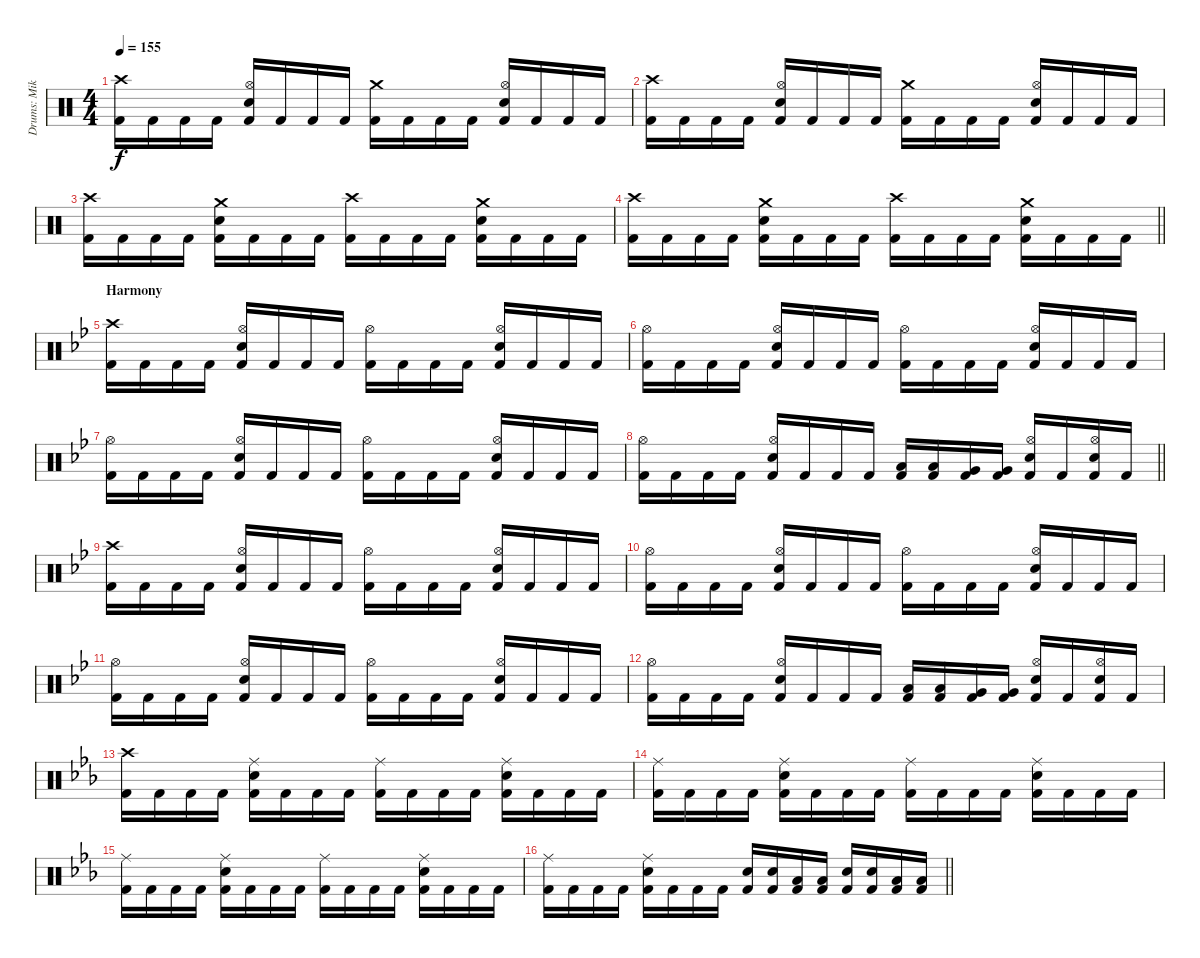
\track ("Drums: Mikko Korsbäck" "Drums: Mik") {instrument percussion}
\staff {score}
\articulation defaults
\ts (4 4)
\tempo 155
\clef neutral
\ks aminor
("Crash high (hit)" "Kick (hit) 2").16{dy f} "Kick (hit) 2".16 "Kick (hit) 2".16 "Kick (hit) 2".16 ("Hi-Hat (open)" "Electric Snare (hit)" "Kick (hit) 2").16 "Kick (hit) 2".16 "Kick (hit) 2".16 "Kick (hit) 2".16 ("Crash medium (hit)" "Kick (hit) 2").16 "Kick (hit) 2".16 "Kick (hit) 2".16 "Kick (hit) 2".16 ("Hi-Hat (open)" "Electric Snare (hit)" "Kick (hit) 2").16 "Kick (hit) 2".16 "Kick (hit) 2".16 "Kick (hit) 2".16 |
("Crash high (hit)" "Kick (hit) 2").16 "Kick (hit) 2".16 "Kick (hit) 2".16 "Kick (hit) 2".16 ("Hi-Hat (open)" "Electric Snare (hit)" "Kick (hit) 2").16 "Kick (hit) 2".16 "Kick (hit) 2".16 "Kick (hit) 2".16 ("Crash medium (hit)" "Kick (hit) 2").16 "Kick (hit) 2".16 "Kick (hit) 2".16 "Kick (hit) 2".16 ("Hi-Hat (open)" "Electric Snare (hit)" "Kick (hit) 2").16 "Kick (hit) 2".16 "Kick (hit) 2".16 "Kick (hit) 2".16 |
("Crash high (hit)" "Kick (hit) 2").16 "Kick (hit) 2".16 "Kick (hit) 2".16 "Kick (hit) 2".16 ("Crash medium (hit)" "Electric Snare (hit)" "Kick (hit) 2").16 "Kick (hit) 2".16 "Kick (hit) 2".16 "Kick (hit) 2".16 ("Crash high (hit)" "Kick (hit) 2").16 "Kick (hit) 2".16 "Kick (hit) 2".16 "Kick (hit) 2".16 ("Crash medium (hit)" "Electric Snare (hit)" "Kick (hit) 2").16 "Kick (hit) 2".16 "Kick (hit) 2".16 "Kick (hit) 2".16 |
\barLineRight lightlight
("Crash high (hit)" "Kick (hit) 2").16 "Kick (hit) 2".16 "Kick (hit) 2".16 "Kick (hit) 2".16 ("Crash medium (hit)" "Electric Snare (hit)" "Kick (hit) 2").16 "Kick (hit) 2".16 "Kick (hit) 2".16 "Kick (hit) 2".16 ("Crash high (hit)" "Kick (hit) 2").16 "Kick (hit) 2".16 "Kick (hit) 2".16 "Kick (hit) 2".16 ("Crash medium (hit)" "Electric Snare (hit)" "Kick (hit) 2").16 "Kick (hit) 2".16 "Kick (hit) 2".16 "Kick (hit) 2".16 |
\section ("" "Harmony")
\ks gminor
("Crash high (hit)" "Kick (hit) 2").16 "Kick (hit) 2".16 "Kick (hit) 2".16 "Kick (hit) 2".16 ("Hi-Hat (open)" "Electric Snare (hit)" "Kick (hit) 2").16 "Kick (hit) 2".16 "Kick (hit) 2".16 "Kick (hit) 2".16 ("Hi-Hat (open)" "Kick (hit) 2").16 "Kick (hit) 2".16 "Kick (hit) 2".16 "Kick (hit) 2".16 ("Hi-Hat (open)" "Electric Snare (hit)" "Kick (hit) 2").16 "Kick (hit) 2".16 "Kick (hit) 2".16 "Kick (hit) 2".16 |
("Hi-Hat (open)" "Kick (hit) 2").16 "Kick (hit) 2".16 "Kick (hit) 2".16 "Kick (hit) 2".16 ("Hi-Hat (open)" "Electric Snare (hit)" "Kick (hit) 2").16 "Kick (hit) 2".16 "Kick (hit) 2".16 "Kick (hit) 2".16 ("Hi-Hat (open)" "Kick (hit) 2").16 "Kick (hit) 2".16 "Kick (hit) 2".16 "Kick (hit) 2".16 ("Hi-Hat (open)" "Electric Snare (hit)" "Kick (hit) 2").16 "Kick (hit) 2".16 "Kick (hit) 2".16 "Kick (hit) 2".16 |
("Hi-Hat (open)" "Kick (hit) 2").16 "Kick (hit) 2".16 "Kick (hit) 2".16 "Kick (hit) 2".16 ("Hi-Hat (open)" "Electric Snare (hit)" "Kick (hit) 2").16 "Kick (hit) 2".16 "Kick (hit) 2".16 "Kick (hit) 2".16 ("Hi-Hat (open)" "Kick (hit) 2").16 "Kick (hit) 2".16 "Kick (hit) 2".16 "Kick (hit) 2".16 ("Hi-Hat (open)" "Electric Snare (hit)" "Kick (hit) 2").16 "Kick (hit) 2".16 "Kick (hit) 2".16 "Kick (hit) 2".16 |
\barLineRight lightlight
("Hi-Hat (open)" "Kick (hit) 2").16 "Kick (hit) 2".16 "Kick (hit) 2".16 "Kick (hit) 2".16 ("Hi-Hat (open)" "Electric Snare (hit)" "Kick (hit) 2").16 "Kick (hit) 2".16 "Kick (hit) 2".16 "Kick (hit) 2".16 ("Low Tom (hit)" "Kick (hit) 2").16 ("Low Tom (hit)" "Kick (hit) 2").16 ("Very Low Tom (hit)" "Kick (hit) 2").16 ("Very Low Tom (hit)" "Kick (hit) 2").16 ("Hi-Hat (open)" "Electric Snare (hit)" "Kick (hit) 2").16 "Kick (hit) 2".16 ("Hi-Hat (open)" "Electric Snare (hit)" "Kick (hit) 2").16 "Kick (hit) 2".16 |
("Crash high (hit)" "Kick (hit) 2").16 "Kick (hit) 2".16 "Kick (hit) 2".16 "Kick (hit) 2".16 ("Hi-Hat (open)" "Electric Snare (hit)" "Kick (hit) 2").16 "Kick (hit) 2".16 "Kick (hit) 2".16 "Kick (hit) 2".16 ("Hi-Hat (open)" "Kick (hit) 2").16 "Kick (hit) 2".16 "Kick (hit) 2".16 "Kick (hit) 2".16 ("Hi-Hat (open)" "Electric Snare (hit)" "Kick (hit) 2").16 "Kick (hit) 2".16 "Kick (hit) 2".16 "Kick (hit) 2".16 |
("Hi-Hat (open)" "Kick (hit) 2").16 "Kick (hit) 2".16 "Kick (hit) 2".16 "Kick (hit) 2".16 ("Hi-Hat (open)" "Electric Snare (hit)" "Kick (hit) 2").16 "Kick (hit) 2".16 "Kick (hit) 2".16 "Kick (hit) 2".16 ("Hi-Hat (open)" "Kick (hit) 2").16 "Kick (hit) 2".16 "Kick (hit) 2".16 "Kick (hit) 2".16 ("Hi-Hat (open)" "Electric Snare (hit)" "Kick (hit) 2").16 "Kick (hit) 2".16 "Kick (hit) 2".16 "Kick (hit) 2".16 |
("Hi-Hat (open)" "Kick (hit) 2").16 "Kick (hit) 2".16 "Kick (hit) 2".16 "Kick (hit) 2".16 ("Hi-Hat (open)" "Electric Snare (hit)" "Kick (hit) 2").16 "Kick (hit) 2".16 "Kick (hit) 2".16 "Kick (hit) 2".16 ("Hi-Hat (open)" "Kick (hit) 2").16 "Kick (hit) 2".16 "Kick (hit) 2".16 "Kick (hit) 2".16 ("Hi-Hat (open)" "Electric Snare (hit)" "Kick (hit) 2").16 "Kick (hit) 2".16 "Kick (hit) 2".16 "Kick (hit) 2".16 |
("Hi-Hat (open)" "Kick (hit) 2").16 "Kick (hit) 2".16 "Kick (hit) 2".16 "Kick (hit) 2".16 ("Hi-Hat (open)" "Electric Snare (hit)" "Kick (hit) 2").16 "Kick (hit) 2".16 "Kick (hit) 2".16 "Kick (hit) 2".16 ("Low Tom (hit)" "Kick (hit) 2").16 ("Low Tom (hit)" "Kick (hit) 2").16 ("Very Low Tom (hit)" "Kick (hit) 2").16 ("Very Low Tom (hit)" "Kick (hit) 2").16 ("Hi-Hat (open)" "Electric Snare (hit)" "Kick (hit) 2").16 "Kick (hit) 2".16 ("Hi-Hat (open)" "Electric Snare (hit)" "Kick (hit) 2").16 "Kick (hit) 2".16 |
\ks cminor
("Crash high (hit)" "Kick (hit) 2").16 "Kick (hit) 2".16 "Kick (hit) 2".16 "Kick (hit) 2".16 ("Ride (middle)" "Electric Snare (hit)" "Kick (hit) 2").16 "Kick (hit) 2".16 "Kick (hit) 2".16 "Kick (hit) 2".16 ("Ride (middle)" "Kick (hit) 2").16 "Kick (hit) 2".16 "Kick (hit) 2".16 "Kick (hit) 2".16 ("Ride (middle)" "Electric Snare (hit)" "Kick (hit) 2").16 "Kick (hit) 2".16 "Kick (hit) 2".16 "Kick (hit) 2".16 |
("Ride (middle)" "Kick (hit) 2").16 "Kick (hit) 2".16 "Kick (hit) 2".16 "Kick (hit) 2".16 ("Ride (middle)" "Electric Snare (hit)" "Kick (hit) 2").16 "Kick (hit) 2".16 "Kick (hit) 2".16 "Kick (hit) 2".16 ("Ride (middle)" "Kick (hit) 2").16 "Kick (hit) 2".16 "Kick (hit) 2".16 "Kick (hit) 2".16 ("Ride (middle)" "Electric Snare (hit)" "Kick (hit) 2").16 "Kick (hit) 2".16 "Kick (hit) 2".16 "Kick (hit) 2".16 |
("Ride (middle)" "Kick (hit) 2").16 "Kick (hit) 2".16 "Kick (hit) 2".16 "Kick (hit) 2".16 ("Ride (middle)" "Electric Snare (hit)" "Kick (hit) 2").16 "Kick (hit) 2".16 "Kick (hit) 2".16 "Kick (hit) 2".16 ("Ride (middle)" "Kick (hit) 2").16 "Kick (hit) 2".16 "Kick (hit) 2".16 "Kick (hit) 2".16 ("Ride (middle)" "Electric Snare (hit)" "Kick (hit) 2").16 "Kick (hit) 2".16 "Kick (hit) 2".16 "Kick (hit) 2".16 |
\barLineRight lightlight
("Ride (middle)" "Kick (hit) 2").16 "Kick (hit) 2".16 "Kick (hit) 2".16 "Kick (hit) 2".16 ("Ride (middle)" "Electric Snare (hit)" "Kick (hit) 2").16 "Kick (hit) 2".16 "Kick (hit) 2".16 "Kick (hit) 2".16 ("Electric Snare (hit)" "Kick (hit) 2").16 ("Electric Snare (hit)" "Kick (hit) 2").16 ("Low Tom (hit)" "Kick (hit) 2").16 ("Low Tom (hit)" "Kick (hit) 2").16 ("Electric Snare (hit)" "Kick (hit) 2").16 ("Electric Snare (hit)" "Kick (hit) 2").16 ("Low Tom (hit)" "Kick (hit) 2").16 ("Low Tom (hit)" "Kick (hit) 2").16
